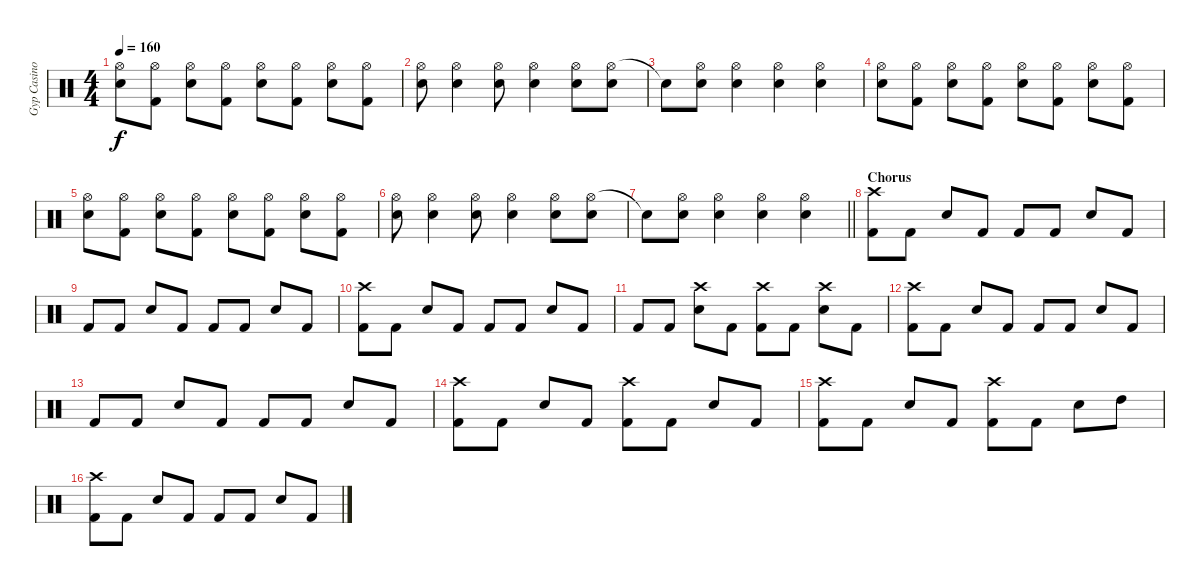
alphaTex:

\track ("Gyp Casino" "Gyp Casino") {instrument percussion}
\staff {score}
\articulation defaults
\ts (4 4)
\tempo 160
\clef neutral
\ks c
("Hi-Hat (open)" "Snare (hit) 2").8{dy f} ("Hi-Hat (open)" "Kick (hit) 2").8 ("Hi-Hat (open)" "Snare (hit) 2").8 ("Hi-Hat (open)" "Kick (hit) 2").8 ("Hi-Hat (open)" "Snare (hit) 2").8 ("Hi-Hat (open)" "Kick (hit) 2").8 ("Hi-Hat (open)" "Snare (hit) 2").8 ("Hi-Hat (open)" "Kick (hit) 2").8 |
("Hi-Hat (open)" "Snare (hit) 2").8 ("Hi-Hat (open)" "Snare (hit) 2").4 ("Hi-Hat (open)" "Snare (hit) 2").8 ("Hi-Hat (open)" "Snare (hit) 2").4 ("Hi-Hat (open)" "Snare (hit) 2").8 ("Hi-Hat (open)" "Snare (hit) 2").8 |
"Snare (hit)"{t}.8 ("Hi-Hat (open)" "Snare (hit) 2").8 ("Hi-Hat (open)" "Snare (hit) 2").4 ("Hi-Hat (open)" "Snare (hit) 2").4 ("Hi-Hat (open)" "Snare (hit) 2").4 |
("Hi-Hat (open)" "Snare (hit) 2").8 ("Hi-Hat (open)" "Kick (hit) 2").8 ("Hi-Hat (open)" "Snare (hit) 2").8 ("Hi-Hat (open)" "Kick (hit) 2").8 ("Hi-Hat (open)" "Snare (hit) 2").8 ("Hi-Hat (open)" "Kick (hit) 2").8 ("Hi-Hat (open)" "Snare (hit) 2").8 ("Hi-Hat (open)" "Kick (hit) 2").8 |
("Hi-Hat (open)" "Snare (hit) 2").8 ("Hi-Hat (open)" "Kick (hit) 2").8 ("Hi-Hat (open)" "Snare (hit) 2").8 ("Hi-Hat (open)" "Kick (hit) 2").8 ("Hi-Hat (open)" "Snare (hit) 2").8 ("Hi-Hat (open)" "Kick (hit) 2").8 ("Hi-Hat (open)" "Snare (hit) 2").8 ("Hi-Hat (open)" "Kick (hit) 2").8 |
("Hi-Hat (open)" "Snare (hit) 2").8 ("Hi-Hat (open)" "Snare (hit) 2").4 ("Hi-Hat (open)" "Snare (hit) 2").8 ("Hi-Hat (open)" "Snare (hit) 2").4 ("Hi-Hat (open)" "Snare (hit) 2").8 ("Hi-Hat (open)" "Snare (hit) 2").8 |
\barLineRight lightlight "Snare (hit)"{t}.8
("Hi-Hat (open)" "Snare (hit) 2").8 ("Hi-Hat (open)" "Snare (hit) 2").4 ("Hi-Hat (open)" "Snare (hit) 2").4 ("Hi-Hat (open)" "Snare (hit) 2").4 |
\section ("" "Chorus")
("Crash high (hit)" "Kick (hit) 2").8 "Kick (hit) 2".8 "Snare (hit) 2".8 "Kick (hit) 2".8 "Kick (hit) 2".8 "Kick (hit) 2".8 "Snare (hit) 2".8 "Kick (hit) 2".8 |
"Kick (hit) 2".8 "Kick (hit) 2".8 "Snare (hit) 2".8 "Kick (hit) 2".8 "Kick (hit) 2".8 "Kick (hit) 2".8 "Snare (hit) 2".8 "Kick (hit) 2".8 |
("Crash high (hit)" "Kick (hit) 2").8 "Kick (hit) 2".8 "Snare (hit) 2".8 "Kick (hit) 2".8 "Kick (hit) 2".8 "Kick (hit) 2".8 "Snare (hit) 2".8 "Kick (hit) 2".8 |
"Kick (hit) 2".8 "Kick (hit) 2".8 ("Crash high (hit)" "Snare (hit) 2").8 "Kick (hit) 2".8 ("Crash high (hit)" "Kick (hit) 2").8 "Kick (hit) 2".8 ("Crash high (hit)" "Snare (hit) 2").8 "Kick (hit) 2".8 |
("Crash high (hit)" "Kick (hit) 2").8 "Kick (hit) 2".8 "Snare (hit) 2".8 "Kick (hit) 2".8 "Kick (hit) 2".8 "Kick (hit) 2".8 "Snare (hit) 2".8 "Kick (hit) 2".8 |
"Kick (hit) 2".8 "Kick (hit) 2".8 "Snare (hit) 2".8 "Kick (hit) 2".8 "Kick (hit) 2".8 "Kick (hit) 2".8 "Snare (hit) 2".8 "Kick (hit) 2".8 |
("Crash high (hit)" "Kick (hit) 2").8 "Kick (hit) 2".8 "Snare (hit) 2".8 "Kick (hit) 2".8 ("Crash high (hit)" "Kick (hit) 2").8 "Kick (hit) 2".8 "Snare (hit) 2".8 "Kick (hit) 2".8 |
("Crash high (hit)" "Kick (hit) 2").8 "Kick (hit) 2".8 "Snare (hit) 2".8 "Kick (hit) 2".8 ("Crash high (hit)" "Kick (hit) 2").8 "Kick (hit) 2".8 "Snare (hit) 2".8 "High Tom (hit)".8 |
("Crash high (hit)" "Kick (hit) 2").8 "Kick (hit) 2".8 "Snare (hit) 2".8 "Kick (hit) 2".8 "Kick (hit) 2".8 "Kick (hit) 2".8 "Snare (hit) 2".8 "Kick (hit) 2".8
